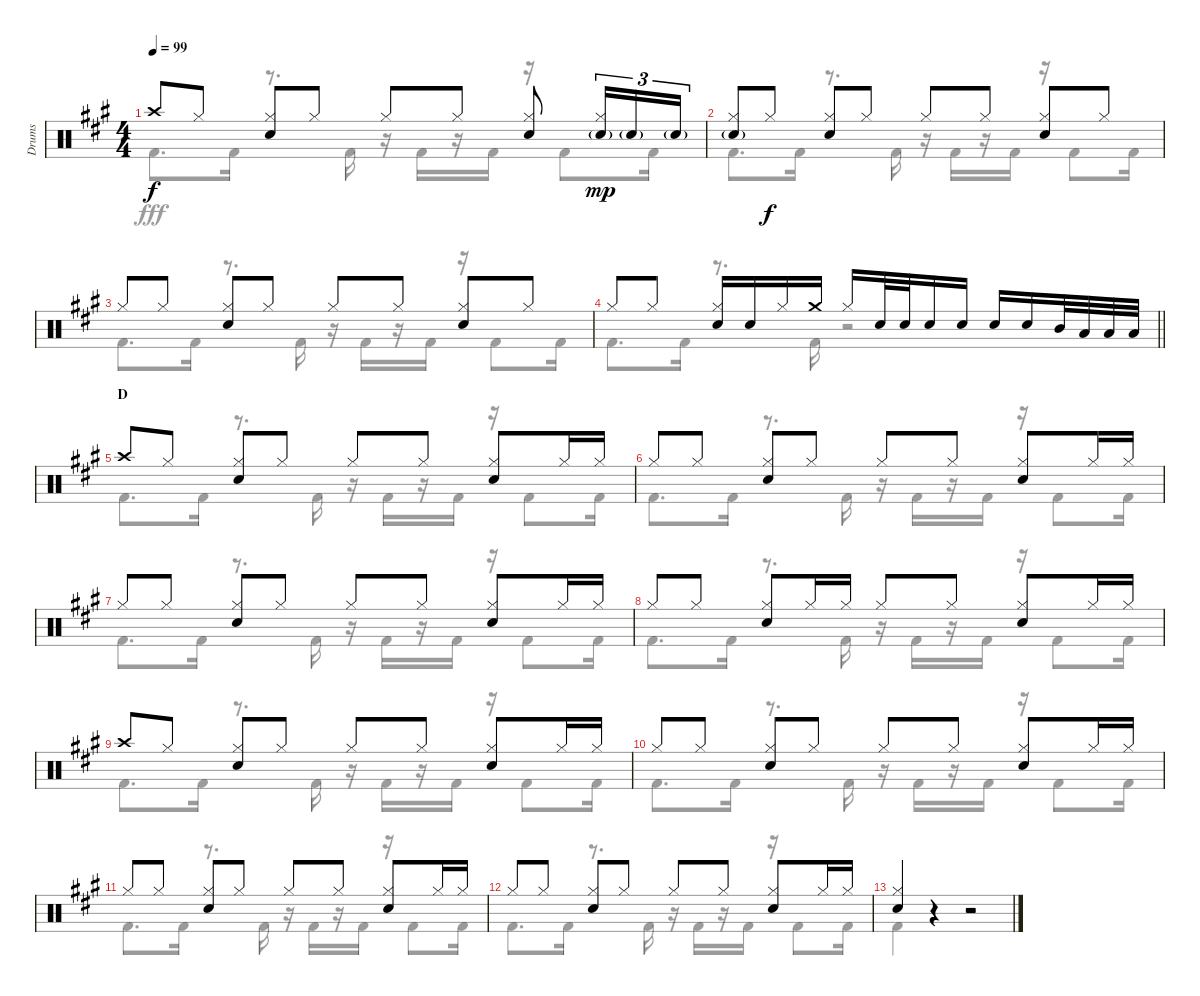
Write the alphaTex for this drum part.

\track ("Drums" "Drums") {instrument percussion}
\staff {score}
\articulation defaults
\voice
\ts (4 4)
\tempo 99
\clef neutral
\ks a "Crash high (hit)".8{dy f} "Hi-Hat (closed)".8
("Hi-Hat (closed)" "Snare (hit) 2").8 "Hi-Hat (closed)".8 "Hi-Hat (closed)".8 "Hi-Hat (closed)".8 ("Hi-Hat (closed)" "Snare (hit) 2").8 ("Hi-Hat (closed)" "Snare (hit) 2"{g}).16{tu (3 2) dy mp} "Snare (hit) 2"{g}.16{tu (3 2)} "Snare (hit) 2"{g}.16{tu (3 2)} |
("Hi-Hat (closed)" "Snare (hit) 2"{g}).8 "Hi-Hat (closed)".8{dy f} ("Hi-Hat (closed)" "Snare (hit) 2").8 "Hi-Hat (closed)".8 "Hi-Hat (closed)".8 "Hi-Hat (closed)".8 ("Hi-Hat (closed)" "Snare (hit) 2").8 "Hi-Hat (closed)".8 |
"Hi-Hat (closed)".8 "Hi-Hat (closed)".8 ("Hi-Hat (closed)" "Snare (hit) 2").8 "Hi-Hat (closed)".8 "Hi-Hat (closed)".8 "Hi-Hat (closed)".8 ("Hi-Hat (closed)" "Snare (hit) 2").8 "Hi-Hat (closed)".8 |
\barLineRight lightlight "Hi-Hat (closed)".8 "Hi-Hat (closed)".8
("Hi-Hat (closed)" "Snare (hit) 2").16 "Snare (hit) 2".16 "Hi-Hat (closed)".16 "Crash medium (hit)".16 "Hi-Hat (closed)".16 "Snare (hit) 2".32 "Snare (hit) 2".32 "Snare (hit) 2".16 "Snare (hit) 2".16 "Snare (hit) 2".16 "Snare (hit) 2".16 "Mid Tom (hit)".32 "Low Tom (hit)".32 "Low Tom (hit)".32 "Low Tom (hit)".32 |
\section ("" "D")
"Crash high (hit)".8 "Hi-Hat (closed)".8 ("Hi-Hat (closed)" "Snare (hit) 2").8 "Hi-Hat (closed)".8 "Hi-Hat (closed)".8 "Hi-Hat (closed)".8 ("Hi-Hat (closed)" "Snare (hit) 2").8 "Hi-Hat (closed)".16 "Hi-Hat (closed)".16 |
"Hi-Hat (closed)".8 "Hi-Hat (closed)".8 ("Hi-Hat (closed)" "Snare (hit) 2").8 "Hi-Hat (closed)".8 "Hi-Hat (closed)".8 "Hi-Hat (closed)".8 ("Hi-Hat (closed)" "Snare (hit) 2").8 "Hi-Hat (closed)".16 "Hi-Hat (closed)".16 |
"Hi-Hat (closed)".8 "Hi-Hat (closed)".8 ("Hi-Hat (closed)" "Snare (hit) 2").8 "Hi-Hat (closed)".8 "Hi-Hat (closed)".8 "Hi-Hat (closed)".8 ("Hi-Hat (closed)" "Snare (hit) 2").8 "Hi-Hat (closed)".16 "Hi-Hat (closed)".16 |
"Hi-Hat (closed)".8 "Hi-Hat (closed)".8 ("Hi-Hat (closed)" "Snare (hit) 2").8 "Hi-Hat (closed)".16 "Hi-Hat (closed)".16 "Hi-Hat (closed)".8 "Hi-Hat (closed)".8 ("Hi-Hat (closed)" "Snare (hit) 2").8 "Hi-Hat (closed)".16 "Hi-Hat (closed)".16 |
"Crash high (hit)".8 "Hi-Hat (closed)".8 ("Hi-Hat (closed)" "Snare (hit) 2").8 "Hi-Hat (closed)".8 "Hi-Hat (closed)".8 "Hi-Hat (closed)".8 ("Hi-Hat (closed)" "Snare (hit) 2").8 "Hi-Hat (closed)".16 "Hi-Hat (closed)".16 |
"Hi-Hat (closed)".8 "Hi-Hat (closed)".8 ("Hi-Hat (closed)" "Snare (hit) 2").8 "Hi-Hat (closed)".8 "Hi-Hat (closed)".8 "Hi-Hat (closed)".8 ("Hi-Hat (closed)" "Snare (hit) 2").8 "Hi-Hat (closed)".16 "Hi-Hat (closed)".16 |
"Hi-Hat (closed)".8 "Hi-Hat (closed)".8 ("Hi-Hat (closed)" "Snare (hit) 2").8 "Hi-Hat (closed)".8 "Hi-Hat (closed)".8 "Hi-Hat (closed)".8 ("Hi-Hat (closed)" "Snare (hit) 2").8 "Hi-Hat (closed)".16 "Hi-Hat (closed)".16 |
"Hi-Hat (closed)".8 "Hi-Hat (closed)".8 ("Hi-Hat (closed)" "Snare (hit) 2").8 "Hi-Hat (closed)".8 "Hi-Hat (closed)".8 "Hi-Hat (closed)".8 ("Hi-Hat (closed)" "Snare (hit) 2").8 "Hi-Hat (closed)".16 "Hi-Hat (closed)".16 |
("Hi-Hat (closed)" "Snare (hit) 2").4 r.4 r.2
\voice
\clef neutral
\ottava regular
\simile none
\ks a "Kick (hit) 2".8{d dy fff} "Kick (hit) 2".16
r.8{d} "Kick (hit) 2".16 r.16 "Kick (hit) 2".16 r.16 "Kick (hit) 2".16 r.16 "Kick (hit) 2".8 "Kick (hit) 2".16 |
"Kick (hit) 2".8{d} "Kick (hit) 2".16 r.8{d} "Kick (hit) 2".16 r.16 "Kick (hit) 2".16 r.16 "Kick (hit) 2".16 r.16 "Kick (hit) 2".8 "Kick (hit) 2".16 |
"Kick (hit) 2".8{d} "Kick (hit) 2".16 r.8{d} "Kick (hit) 2".16 r.16 "Kick (hit) 2".16 r.16 "Kick (hit) 2".16 r.16 "Kick (hit) 2".8 "Kick (hit) 2".16 |
\barLineRight lightlight "Kick (hit) 2".8{d} "Kick (hit) 2".16
r.8{d} "Kick (hit) 2".16 r.2 |
"Kick (hit) 2".8{d} "Kick (hit) 2".16 r.8{d} "Kick (hit) 2".16 r.16 "Kick (hit) 2".16 r.16 "Kick (hit) 2".16 r.16 "Kick (hit) 2".8 "Kick (hit) 2".16 |
"Kick (hit) 2".8{d} "Kick (hit) 2".16 r.8{d} "Kick (hit) 2".16 r.16 "Kick (hit) 2".16 r.16 "Kick (hit) 2".16 r.16 "Kick (hit) 2".8 "Kick (hit) 2".16 |
"Kick (hit) 2".8{d} "Kick (hit) 2".16 r.8{d} "Kick (hit) 2".16 r.16 "Kick (hit) 2".16 r.16 "Kick (hit) 2".16 r.16 "Kick (hit) 2".8 "Kick (hit) 2".16 |
"Kick (hit) 2".8{d} "Kick (hit) 2".16 r.8{d} "Kick (hit) 2".16 r.16 "Kick (hit) 2".16 r.16 "Kick (hit) 2".16 r.16 "Kick (hit) 2".8 "Kick (hit) 2".16 |
"Kick (hit) 2".8{d} "Kick (hit) 2".16 r.8{d} "Kick (hit) 2".16 r.16 "Kick (hit) 2".16 r.16 "Kick (hit) 2".16 r.16 "Kick (hit) 2".8 "Kick (hit) 2".16 |
"Kick (hit) 2".8{d} "Kick (hit) 2".16 r.8{d} "Kick (hit) 2".16 r.16 "Kick (hit) 2".16 r.16 "Kick (hit) 2".16 r.16 "Kick (hit) 2".8 "Kick (hit) 2".16 |
"Kick (hit) 2".8{d} "Kick (hit) 2".16 r.8{d} "Kick (hit) 2".16 r.16 "Kick (hit) 2".16 r.16 "Kick (hit) 2".16 r.16 "Kick (hit) 2".8 "Kick (hit) 2".16 |
"Kick (hit) 2".8{d} "Kick (hit) 2".16 r.8{d} "Kick (hit) 2".16 r.16 "Kick (hit) 2".16 r.16 "Kick (hit) 2".16 r.16 "Kick (hit) 2".8 "Kick (hit) 2".16 |
"Kick (hit) 2".4 r.4 r.2
